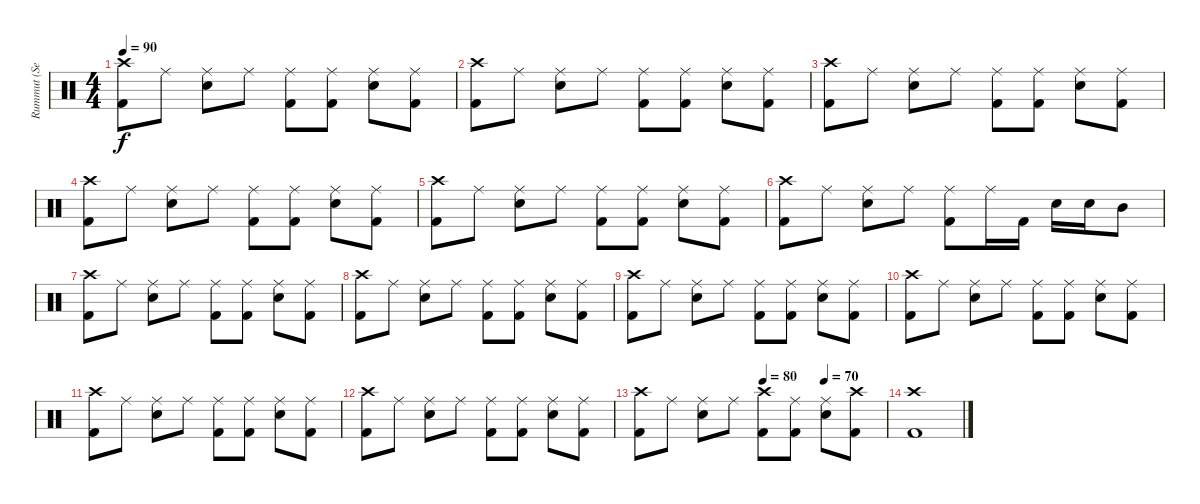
\track ("Rummut (Seppo Pohjolainen)" "Rummut (Se") {instrument percussion}
\staff {score}
\articulation defaults
\ts (4 4)
\tempo 90
\clef neutral
\ks c
("Crash high (hit)" "Kick (hit) 2").8{dy f} "Ride (middle)".8 ("Ride (middle)" "Snare (hit) 2").8 "Ride (middle)".8 ("Ride (middle)" "Kick (hit) 2").8 ("Ride (middle)" "Kick (hit) 2").8 ("Ride (middle)" "Snare (hit) 2").8 ("Ride (middle)" "Kick (hit) 2").8 |
("Crash high (hit)" "Kick (hit) 2").8 "Ride (middle)".8 ("Ride (middle)" "Snare (hit) 2").8 "Ride (middle)".8 ("Ride (middle)" "Kick (hit) 2").8 ("Ride (middle)" "Kick (hit) 2").8 ("Ride (middle)" "Snare (hit) 2").8 ("Ride (middle)" "Kick (hit) 2").8 |
("Crash high (hit)" "Kick (hit) 2").8 "Ride (middle)".8 ("Ride (middle)" "Snare (hit) 2").8 "Ride (middle)".8 ("Ride (middle)" "Kick (hit) 2").8 ("Ride (middle)" "Kick (hit) 2").8 ("Ride (middle)" "Snare (hit) 2").8 ("Ride (middle)" "Kick (hit) 2").8 |
("Crash high (hit)" "Kick (hit) 2").8 "Ride (middle)".8 ("Ride (middle)" "Snare (hit) 2").8 "Ride (middle)".8 ("Ride (middle)" "Kick (hit) 2").8 ("Ride (middle)" "Kick (hit) 2").8 ("Ride (middle)" "Snare (hit) 2").8 ("Ride (middle)" "Kick (hit) 2").8 |
("Crash high (hit)" "Kick (hit) 2").8 "Ride (middle)".8 ("Ride (middle)" "Snare (hit) 2").8 "Ride (middle)".8 ("Ride (middle)" "Kick (hit) 2").8 ("Ride (middle)" "Kick (hit) 2").8 ("Ride (middle)" "Snare (hit) 2").8 ("Ride (middle)" "Kick (hit) 2").8 |
("Crash high (hit)" "Kick (hit) 2").8 "Ride (middle)".8 ("Ride (middle)" "Snare (hit) 2").8 "Ride (middle)".8 ("Ride (middle)" "Kick (hit) 2").8 "Ride (middle)".16 "Kick (hit) 2".16 "Snare (hit) 2".16 "Snare (hit) 2".16 "Mid Tom (hit)".8 |
("Crash high (hit)" "Kick (hit) 2").8 "Ride (middle)".8 ("Ride (middle)" "Snare (hit) 2").8 "Ride (middle)".8 ("Ride (middle)" "Kick (hit) 2").8 ("Ride (middle)" "Kick (hit) 2").8 ("Ride (middle)" "Snare (hit) 2").8 ("Ride (middle)" "Kick (hit) 2").8 |
("Crash high (hit)" "Kick (hit) 2").8 "Ride (middle)".8 ("Ride (middle)" "Snare (hit) 2").8 "Ride (middle)".8 ("Ride (middle)" "Kick (hit) 2").8 ("Ride (middle)" "Kick (hit) 2").8 ("Ride (middle)" "Snare (hit) 2").8 ("Ride (middle)" "Kick (hit) 2").8 |
("Crash high (hit)" "Kick (hit) 2").8 "Ride (middle)".8 ("Ride (middle)" "Snare (hit) 2").8 "Ride (middle)".8 ("Ride (middle)" "Kick (hit) 2").8 ("Ride (middle)" "Kick (hit) 2").8 ("Ride (middle)" "Snare (hit) 2").8 ("Ride (middle)" "Kick (hit) 2").8 |
("Crash high (hit)" "Kick (hit) 2").8 "Ride (middle)".8 ("Ride (middle)" "Snare (hit) 2").8 "Ride (middle)".8 ("Ride (middle)" "Kick (hit) 2").8 ("Ride (middle)" "Kick (hit) 2").8 ("Ride (middle)" "Snare (hit) 2").8 ("Ride (middle)" "Kick (hit) 2").8 |
("Crash high (hit)" "Kick (hit) 2").8 "Ride (middle)".8 ("Ride (middle)" "Snare (hit) 2").8 "Ride (middle)".8 ("Ride (middle)" "Kick (hit) 2").8 ("Ride (middle)" "Kick (hit) 2").8 ("Ride (middle)" "Snare (hit) 2").8 ("Ride (middle)" "Kick (hit) 2").8 |
("Crash high (hit)" "Kick (hit) 2").8 "Ride (middle)".8 ("Ride (middle)" "Snare (hit) 2").8 "Ride (middle)".8 ("Ride (middle)" "Kick (hit) 2").8 ("Ride (middle)" "Kick (hit) 2").8 ("Ride (middle)" "Snare (hit) 2").8 ("Ride (middle)" "Kick (hit) 2").8 |
\tempo (80 0.5)
\tempo (70 0.75)
("Crash high (hit)" "Kick (hit) 2").8 "Ride (middle)".8 ("Ride (middle)" "Snare (hit) 2").8 "Ride (middle)".8 ("Crash high (hit)" "Kick (hit) 2").8 ("Ride (middle)" "Kick (hit) 2").8 ("Ride (middle)" "Snare (hit) 2").8 ("Crash high (hit)" "Kick (hit) 2").8 |
("Crash high (hit)" "Kick (hit) 2").1
